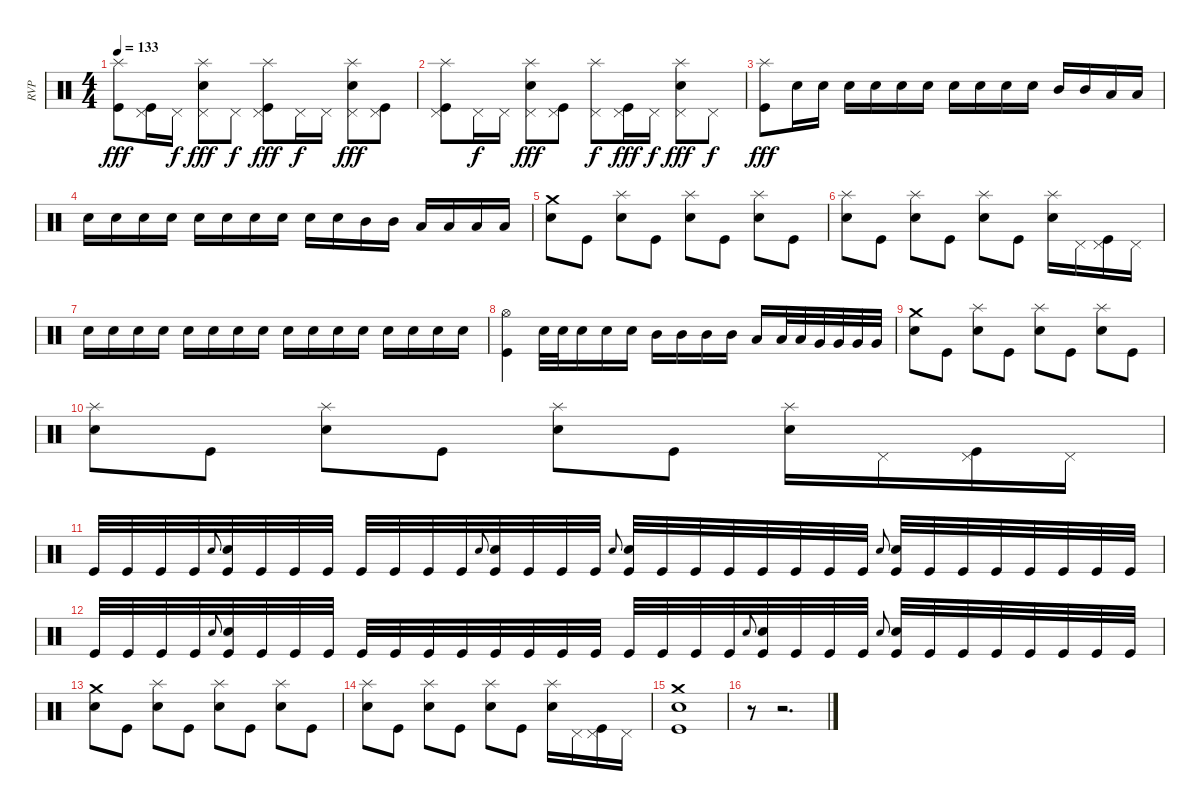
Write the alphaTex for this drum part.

\track ("RVP" "RVP") {instrument percussion}
\staff {score}
\articulation defaults
\ts (4 4)
\tempo 133
\clef neutral
\ks c
("Splash (hit)" "Kick (hit)").8{txt "" dy fff} ("Pedal Hi-Hat (hit)" "Kick (hit)").16{txt ""} "Pedal Hi-Hat (hit)".16{txt "" dy f} ("Snare (hit) 2" "Pedal Hi-Hat (hit)" "Splash (hit)").8{txt "" dy fff} "Pedal Hi-Hat (hit)".8{txt "" dy f} ("Pedal Hi-Hat (hit)" "Splash (hit)" "Kick (hit)").8{txt "" dy fff} "Pedal Hi-Hat (hit)".16{txt "" dy f} "Pedal Hi-Hat (hit)".16{txt ""} ("Snare (hit) 2" "Pedal Hi-Hat (hit)" "Splash (hit)").8{txt "" dy fff} ("Pedal Hi-Hat (hit)" "Kick (hit)").8{txt ""} |
("Pedal Hi-Hat (hit)" "Splash (hit)" "Kick (hit)").8{txt ""} "Pedal Hi-Hat (hit)".16{txt "" dy f} "Pedal Hi-Hat (hit)".16{txt ""} ("Snare (hit) 2" "Pedal Hi-Hat (hit)" "Splash (hit)").8{txt "" dy fff} ("Pedal Hi-Hat (hit)" "Kick (hit)").8{txt ""} ("Pedal Hi-Hat (hit)" "Splash (hit)").8{txt "" dy f} ("Pedal Hi-Hat (hit)" "Kick (hit)").16{txt "" dy fff} "Pedal Hi-Hat (hit)".16{txt "" dy f} ("Snare (hit) 2" "Pedal Hi-Hat (hit)" "Splash (hit)").8{txt "" dy fff} "Pedal Hi-Hat (hit)".8{txt "" dy f} |
("Splash (hit)" "Kick (hit)").8{txt "" dy fff} "Snare (hit) 2".16{txt ""} "Snare (hit) 2".16{txt ""} "Snare (hit) 2".16{txt ""} "Snare (hit) 2".16{txt ""} "Snare (hit) 2".16{txt ""} "Snare (hit) 2".16{txt ""} "Snare (hit) 2".16{txt ""} "Snare (hit) 2".16{txt ""} "Snare (hit) 2".16{txt ""} "Snare (hit) 2".16{txt ""} "Mid Tom (hit)".16{txt ""} "Mid Tom (hit)".16{txt ""} "Low Tom (hit)".16{txt ""} "Low Tom (hit)".16{txt ""} |
"Snare (hit) 2".16{txt ""} "Snare (hit) 2".16{txt ""} "Snare (hit) 2".16{txt ""} "Snare (hit) 2".16{txt ""} "Snare (hit) 2".16{txt ""} "Snare (hit) 2".16{txt ""} "Snare (hit) 2".16{txt ""} "Snare (hit) 2".16{txt ""} "Snare (hit) 2".16{txt ""} "Snare (hit) 2".16{txt ""} "Mid Tom (hit)".16{txt ""} "Mid Tom (hit)".16{txt ""} "Low Tom (hit)".16{txt ""} "Low Tom (hit)".16{txt ""} "Low Floor Tom (hit)".16{txt ""} "Low Floor Tom (hit)".16{txt ""} |
("Snare (hit) 2" "Crash medium (hit)").8{txt ""} "Kick (hit)".8{txt ""} ("Snare (hit) 2" "Splash (hit)").8{txt ""} "Kick (hit)".8{txt ""} ("Snare (hit) 2" "Splash (hit)").8{txt ""} "Kick (hit)".8{txt ""} ("Snare (hit) 2" "Splash (hit)").8{txt ""} "Kick (hit)".8{txt ""} |
("Snare (hit) 2" "Splash (hit)").8{txt ""} "Kick (hit)".8{txt ""} ("Snare (hit) 2" "Splash (hit)").8{txt ""} "Kick (hit)".8{txt ""} ("Snare (hit) 2" "Splash (hit)").8{txt ""} "Kick (hit)".8{txt ""} ("Snare (hit) 2" "Splash (hit)").16{txt ""} "Pedal Hi-Hat (hit)".16{txt ""} ("Pedal Hi-Hat (hit)" "Kick (hit)").16{txt ""} "Pedal Hi-Hat (hit)".16{txt ""} |
"Snare (hit) 2".16{txt ""} "Snare (hit) 2".16{txt ""} "Snare (hit) 2".16{txt ""} "Snare (hit) 2".16{txt ""} "Snare (hit) 2".16{txt ""} "Snare (hit) 2".16{txt ""} "Snare (hit) 2".16{txt ""} "Snare (hit) 2".16{txt ""} "Snare (hit) 2".16{txt ""} "Snare (hit) 2".16{txt ""} "Snare (hit) 2".16{txt ""} "Snare (hit) 2".16{txt ""} "Snare (hit) 2".16{txt ""} "Snare (hit) 2".16{txt ""} "Snare (hit) 2".16{txt ""} "Snare (hit) 2".16{txt ""} |
("Hi-Hat (open)" "Kick (hit)").4{txt ""} "Snare (hit) 2".32{txt ""} "Snare (hit) 2".32{txt ""} "Snare (hit) 2".16{txt ""} "Snare (hit) 2".16{txt ""} "Snare (hit) 2".16{txt ""} "Mid Tom (hit)".16{txt ""} "Mid Tom (hit)".16{txt ""} "Mid Tom (hit)".16{txt ""} "Mid Tom (hit)".16{txt ""} "Low Tom (hit)".16{txt ""} "Low Tom (hit)".32{txt ""} "Low Tom (hit)".32{txt ""} "Very Low Tom (hit)".32{txt ""} "Very Low Tom (hit)".32{txt ""} "Very Low Tom (hit)".32{txt ""} "Very Low Tom (hit)".32{txt ""} |
("Snare (hit) 2" "Crash medium (hit)").8{txt ""} "Kick (hit)".8{txt ""} ("Snare (hit) 2" "Splash (hit)").8{txt ""} "Kick (hit)".8{txt ""} ("Snare (hit) 2" "Splash (hit)").8{txt ""} "Kick (hit)".8{txt ""} ("Snare (hit) 2" "Splash (hit)").8{txt ""} "Kick (hit)".8{txt ""} |
("Snare (hit) 2" "Splash (hit)").8{txt ""} "Kick (hit)".8{txt ""} ("Snare (hit) 2" "Splash (hit)").8{txt ""} "Kick (hit)".8{txt ""} ("Snare (hit) 2" "Splash (hit)").8{txt ""} "Kick (hit)".8{txt ""} ("Snare (hit) 2" "Splash (hit)").16{txt ""} "Pedal Hi-Hat (hit)".16{txt ""} ("Pedal Hi-Hat (hit)" "Kick (hit)").16{txt ""} "Pedal Hi-Hat (hit)".16{txt ""} |
"Kick (hit)".32{txt ""} "Kick (hit)".32{txt ""} "Kick (hit)".32{txt ""} "Kick (hit)".32{txt ""} "Snare (hit) 2".8{gr onbeat} ("Snare (hit) 2" "Kick (hit)").32{txt ""} "Kick (hit)".32{txt ""} "Kick (hit)".32{txt ""} "Kick (hit)".32{txt ""} "Kick (hit)".32{txt ""} "Kick (hit)".32{txt ""} "Kick (hit)".32{txt ""} "Kick (hit)".32{txt ""} "Snare (hit) 2".8{gr onbeat} ("Snare (hit) 2" "Kick (hit)").32{txt ""} "Kick (hit)".32{txt ""} "Kick (hit)".32{txt ""} "Kick (hit)".32{txt ""} "Snare (hit) 2".8{gr onbeat} ("Snare (hit) 2" "Kick (hit)").32{txt ""} "Kick (hit)".32{txt ""} "Kick (hit)".32{txt ""} "Kick (hit)".32{txt ""} "Kick (hit)".32{txt ""} "Kick (hit)".32{txt ""} "Kick (hit)".32{txt ""} "Kick (hit)".32{txt ""} "Snare (hit) 2".8{gr onbeat} ("Snare (hit) 2" "Kick (hit)").32{txt ""} "Kick (hit)".32{txt ""} "Kick (hit)".32{txt ""} "Kick (hit)".32{txt ""} "Kick (hit)".32{txt ""} "Kick (hit)".32{txt ""} "Kick (hit)".32{txt ""} "Kick (hit)".32{txt ""} |
"Kick (hit)".32{txt ""} "Kick (hit)".32{txt ""} "Kick (hit)".32{txt ""} "Kick (hit)".32{txt ""} "Snare (hit) 2".8{gr onbeat} ("Snare (hit) 2" "Kick (hit)").32{txt ""} "Kick (hit)".32{txt ""} "Kick (hit)".32{txt ""} "Kick (hit)".32{txt ""} "Kick (hit)".32{txt ""} "Kick (hit)".32{txt ""} "Kick (hit)".32{txt ""} "Kick (hit)".32{txt ""} "Kick (hit)".32{txt ""} "Kick (hit)".32{txt ""} "Kick (hit)".32{txt ""} "Kick (hit)".32{txt ""} "Kick (hit)".32{txt ""} "Kick (hit)".32{txt ""} "Kick (hit)".32{txt ""} "Kick (hit)".32{txt ""} "Snare (hit) 2".8{gr onbeat} ("Snare (hit) 2" "Kick (hit)").32{txt ""} "Kick (hit)".32{txt ""} "Kick (hit)".32{txt ""} "Kick (hit)".32{txt ""} "Snare (hit) 2".8{gr onbeat} ("Snare (hit) 2" "Kick (hit)").32{txt ""} "Kick (hit)".32{txt ""} "Kick (hit)".32{txt ""} "Kick (hit)".32{txt ""} "Kick (hit)".32{txt ""} "Kick (hit)".32{txt ""} "Kick (hit)".32{txt ""} "Kick (hit)".32{txt ""} |
("Snare (hit) 2" "Crash medium (hit)").8{txt ""} "Kick (hit)".8{txt ""} ("Snare (hit) 2" "Splash (hit)").8{txt ""} "Kick (hit)".8{txt ""} ("Snare (hit) 2" "Splash (hit)").8{txt ""} "Kick (hit)".8{txt ""} ("Snare (hit) 2" "Splash (hit)").8{txt ""} "Kick (hit)".8{txt ""} |
("Snare (hit) 2" "Splash (hit)").8{txt ""} "Kick (hit)".8{txt ""} ("Snare (hit) 2" "Splash (hit)").8{txt ""} "Kick (hit)".8{txt ""} ("Snare (hit) 2" "Splash (hit)").8{txt ""} "Kick (hit)".8{txt ""} ("Snare (hit) 2" "Splash (hit)").16{txt ""} "Pedal Hi-Hat (hit)".16{txt ""} ("Pedal Hi-Hat (hit)" "Kick (hit)").16{txt ""} "Pedal Hi-Hat (hit)".16{txt ""} |
("Snare (hit) 2" "Crash medium (hit)" "Kick (hit)").1{txt ""} |
r.8{txt ""} r.2{d txt ""}
